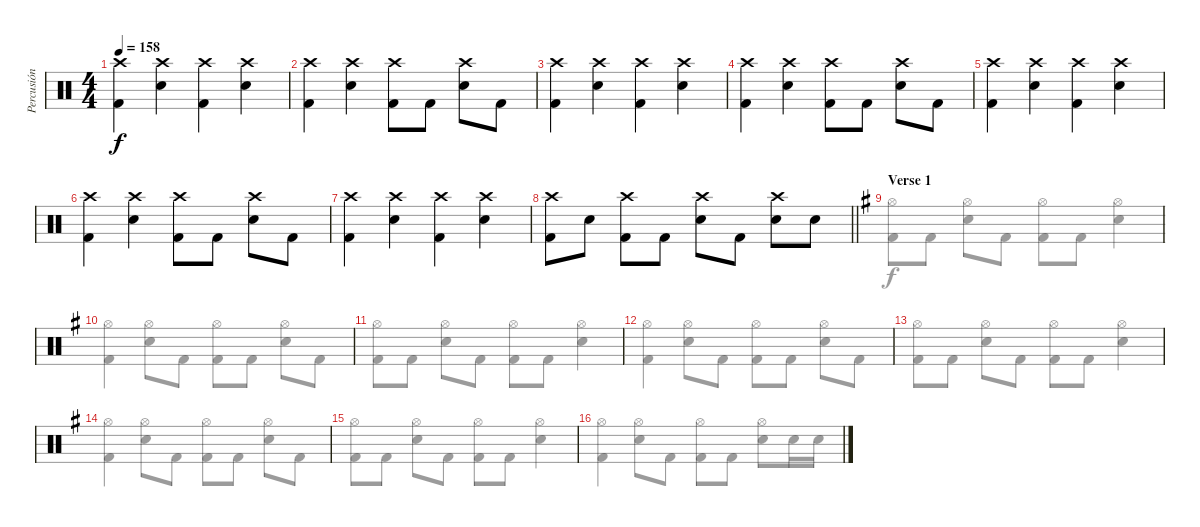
\track ("Percusión" "Percusión") {instrument percussion}
\staff {score}
\articulation defaults
\voice
\ts (4 4)
\tempo 158
\clef neutral
\ks c
("Crash high (hit)" "Kick (hit) 2").4{dy f} ("Crash high (hit)" "Snare (hit) 2").4 ("Crash high (hit)" "Kick (hit) 2").4 ("Crash high (hit)" "Snare (hit) 2").4 |
("Crash high (hit)" "Kick (hit) 2").4 ("Crash high (hit)" "Snare (hit) 2").4 ("Crash high (hit)" "Kick (hit) 2").8 "Kick (hit) 2".8 ("Crash high (hit)" "Snare (hit) 2").8 "Kick (hit) 2".8 |
("Crash high (hit)" "Kick (hit) 2").4 ("Crash high (hit)" "Snare (hit) 2").4 ("Crash high (hit)" "Kick (hit) 2").4 ("Crash high (hit)" "Snare (hit) 2").4 |
("Crash high (hit)" "Kick (hit) 2").4 ("Crash high (hit)" "Snare (hit) 2").4 ("Crash high (hit)" "Kick (hit) 2").8 "Kick (hit) 2".8 ("Crash high (hit)" "Snare (hit) 2").8 "Kick (hit) 2".8 |
("Crash high (hit)" "Kick (hit) 2").4 ("Crash high (hit)" "Snare (hit) 2").4 ("Crash high (hit)" "Kick (hit) 2").4 ("Crash high (hit)" "Snare (hit) 2").4 |
("Crash high (hit)" "Kick (hit) 2").4 ("Crash high (hit)" "Snare (hit) 2").4 ("Crash high (hit)" "Kick (hit) 2").8 "Kick (hit) 2".8 ("Crash high (hit)" "Snare (hit) 2").8 "Kick (hit) 2".8 |
("Crash high (hit)" "Kick (hit) 2").4 ("Crash high (hit)" "Snare (hit) 2").4 ("Crash high (hit)" "Kick (hit) 2").4 ("Crash high (hit)" "Snare (hit) 2").4 |
\barLineRight lightlight
("Crash high (hit)" "Kick (hit) 2").8 "Snare (hit) 2".8 ("Crash high (hit)" "Kick (hit) 2").8 "Kick (hit) 2".8 ("Crash high (hit)" "Snare (hit) 2").8 "Kick (hit) 2".8 ("Crash high (hit)" "Snare (hit) 2").8 "Snare (hit) 2".8 |
\section ("" "Verse 1")
\ks g
|
|
|
|
|
|
|
\voice
\clef neutral
\ottava regular
\simile none
\ks c
|
|
|
|
|
|
|
\barLineRight lightlight
|
\ks g
("Hi-Hat (open)" "Kick (hit) 2").8 "Kick (hit) 2".8 ("Hi-Hat (open)" "Snare (hit) 2").8 "Kick (hit) 2".8 ("Hi-Hat (open)" "Kick (hit) 2").8 "Kick (hit) 2".8 ("Hi-Hat (open)" "Snare (hit) 2").4 |
("Hi-Hat (open)" "Kick (hit) 2").4 ("Hi-Hat (open)" "Snare (hit) 2").8 "Kick (hit) 2".8 ("Hi-Hat (open)" "Kick (hit) 2").8 "Kick (hit) 2".8 ("Hi-Hat (open)" "Snare (hit) 2").8 "Kick (hit) 2".8 |
("Hi-Hat (open)" "Kick (hit) 2").8 "Kick (hit) 2".8 ("Hi-Hat (open)" "Snare (hit) 2").8 "Kick (hit) 2".8 ("Hi-Hat (open)" "Kick (hit) 2").8 "Kick (hit) 2".8 ("Hi-Hat (open)" "Snare (hit) 2").4 |
("Hi-Hat (open)" "Kick (hit) 2").4 ("Hi-Hat (open)" "Snare (hit) 2").8 "Kick (hit) 2".8 ("Hi-Hat (open)" "Kick (hit) 2").8 "Kick (hit) 2".8 ("Hi-Hat (open)" "Snare (hit) 2").8 "Kick (hit) 2".8 |
("Hi-Hat (open)" "Kick (hit) 2").8 "Kick (hit) 2".8 ("Hi-Hat (open)" "Snare (hit) 2").8 "Kick (hit) 2".8 ("Hi-Hat (open)" "Kick (hit) 2").8 "Kick (hit) 2".8 ("Hi-Hat (open)" "Snare (hit) 2").4 |
("Hi-Hat (open)" "Kick (hit) 2").4 ("Hi-Hat (open)" "Snare (hit) 2").8 "Kick (hit) 2".8 ("Hi-Hat (open)" "Kick (hit) 2").8 "Kick (hit) 2".8 ("Hi-Hat (open)" "Snare (hit) 2").8 "Kick (hit) 2".8 |
("Hi-Hat (open)" "Kick (hit) 2").8 "Kick (hit) 2".8 ("Hi-Hat (open)" "Snare (hit) 2").8 "Kick (hit) 2".8 ("Hi-Hat (open)" "Kick (hit) 2").8 "Kick (hit) 2".8 ("Hi-Hat (open)" "Snare (hit) 2").4 |
("Hi-Hat (open)" "Kick (hit) 2").4 ("Hi-Hat (open)" "Snare (hit) 2").8 "Kick (hit) 2".8 ("Hi-Hat (open)" "Kick (hit) 2").8 "Kick (hit) 2".8 ("Hi-Hat (open)" "Snare (hit) 2").8 "Snare (hit) 2".16 "Snare (hit) 2".16
